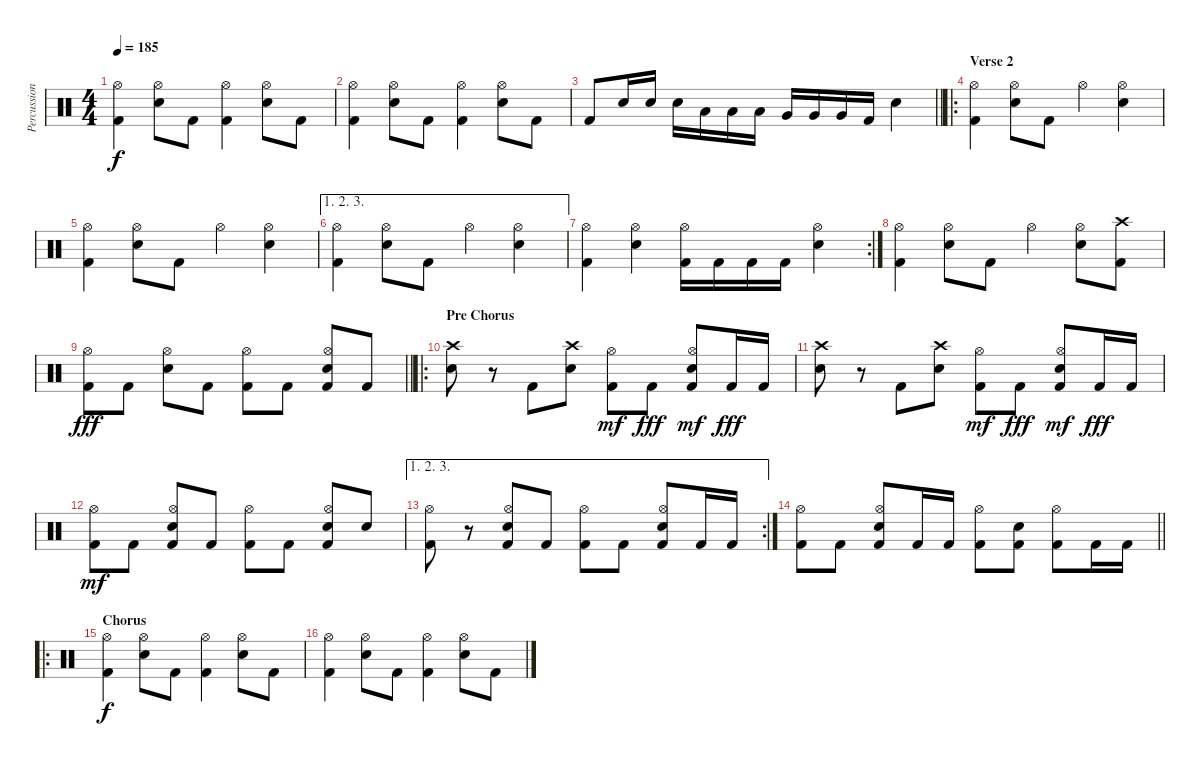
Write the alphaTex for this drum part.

\track ("Percussioni" "Percussion") {instrument percussion}
\staff {score}
\articulation defaults
\ts (4 4)
\tempo 185
\clef neutral
\ks c
("Kick (hit) 2" "Hi-Hat (open)").4{dy f} ("Snare (hit) 2" "Hi-Hat (open)").8 "Kick (hit) 2".8 ("Kick (hit) 2" "Hi-Hat (open)").4 ("Snare (hit) 2" "Hi-Hat (open)").8 "Kick (hit) 2".8 |
("Kick (hit) 2" "Hi-Hat (open)").4 ("Snare (hit) 2" "Hi-Hat (open)").8 "Kick (hit) 2".8 ("Kick (hit) 2" "Hi-Hat (open)").4 ("Snare (hit) 2" "Hi-Hat (open)").8 "Kick (hit) 2".8 |
\barLineRight lightlight "Kick (hit) 2".8 "Snare (hit) 2".16 "Snare (hit) 2".16 "Snare (hit) 2".16 "Low Tom (hit)".16 "Low Tom (hit)".16 "Low Tom (hit)".16 "Very Low Tom (hit)".16 "Very Low Tom (hit)".16 "Very Low Tom (hit)".16 "Kick (hit) 2".16 "Snare (hit) 2".4
|
\ro
\section ("" "Verse 2")
("Kick (hit) 2" "Hi-Hat (open)").4 ("Snare (hit) 2" "Hi-Hat (open)").8 "Kick (hit) 2".8 "Hi-Hat (open)".4 ("Snare (hit) 2" "Hi-Hat (open)").4 |
("Kick (hit) 2" "Hi-Hat (open)").4 ("Snare (hit) 2" "Hi-Hat (open)").8 "Kick (hit) 2".8 "Hi-Hat (open)".4 ("Snare (hit) 2" "Hi-Hat (open)").4 |
\ae (1 2 3)
("Kick (hit) 2" "Hi-Hat (open)").4 ("Snare (hit) 2" "Hi-Hat (open)").8 "Kick (hit) 2".8 "Hi-Hat (open)".4 ("Snare (hit) 2" "Hi-Hat (open)").4 |
\rc 2
("Kick (hit) 2" "Hi-Hat (open)").4 ("Snare (hit) 2" "Hi-Hat (open)").4 ("Kick (hit) 2" "Hi-Hat (open)").16 "Kick (hit) 2".16 "Kick (hit) 2".16 "Kick (hit) 2".16 ("Snare (hit) 2" "Hi-Hat (open)").4 |
("Kick (hit) 2" "Hi-Hat (open)").4 ("Snare (hit) 2" "Hi-Hat (open)").8 "Kick (hit) 2".8 "Hi-Hat (open)".4 ("Snare (hit) 2" "Hi-Hat (open)").8 ("Kick (hit) 2" "Crash high (hit)").8 |
\barLineRight lightlight
("Kick (hit) 2" "Hi-Hat (open)").8{dy fff} "Kick (hit) 2".8 ("Snare (hit) 2" "Hi-Hat (open)").8 "Kick (hit) 2".8 ("Kick (hit) 2" "Hi-Hat (open)").8 "Kick (hit) 2".8 ("Snare (hit) 2" "Hi-Hat (open)" "Kick (hit) 2").8 "Kick (hit) 2".8 |
\ro
\section ("" "Pre Chorus")
("Snare (hit) 2" "Crash high (hit)").8 r.8 "Kick (hit) 2".8 ("Snare (hit) 2" "Crash high (hit)").8 ("Kick (hit) 2" "Hi-Hat (open)").8{dy mf} "Kick (hit) 2".8{dy fff} ("Kick (hit) 2" "Snare (hit) 2" "Hi-Hat (open)").8{dy mf} "Kick (hit) 2".16{dy fff} "Kick (hit) 2".16 |
("Snare (hit) 2" "Crash high (hit)").8 r.8 "Kick (hit) 2".8 ("Snare (hit) 2" "Crash high (hit)").8 ("Kick (hit) 2" "Hi-Hat (open)").8{dy mf} "Kick (hit) 2".8{dy fff} ("Kick (hit) 2" "Snare (hit) 2" "Hi-Hat (open)").8{dy mf} "Kick (hit) 2".16{dy fff} "Kick (hit) 2".16 |
("Kick (hit) 2" "Hi-Hat (open)").8{dy mf} "Kick (hit) 2".8 ("Kick (hit) 2" "Snare (hit) 2" "Hi-Hat (open)").8 "Kick (hit) 2".8 ("Kick (hit) 2" "Hi-Hat (open)").8 "Kick (hit) 2".8 ("Kick (hit) 2" "Snare (hit) 2" "Hi-Hat (open)").8 "Snare (hit) 2".8 |
\ae (1 2 3)
\rc 2
("Kick (hit) 2" "Hi-Hat (open)").8 r.8 ("Kick (hit) 2" "Snare (hit) 2" "Hi-Hat (open)").8 "Kick (hit) 2".8 ("Kick (hit) 2" "Hi-Hat (open)").8 "Kick (hit) 2".8 ("Kick (hit) 2" "Snare (hit) 2" "Hi-Hat (open)").8 "Kick (hit) 2".16 "Kick (hit) 2".16 |
\barLineRight lightlight
("Kick (hit) 2" "Hi-Hat (open)").8 "Kick (hit) 2".8 ("Kick (hit) 2" "Snare (hit) 2" "Hi-Hat (open)").8 "Kick (hit) 2".16 "Kick (hit) 2".16 ("Kick (hit) 2" "Hi-Hat (open)").8 ("Kick (hit) 2" "Snare (hit) 2").8 ("Kick (hit) 2" "Hi-Hat (open)").8 "Kick (hit) 2".16 "Kick (hit) 2".16 |
\ro
\section ("" "Chorus")
("Kick (hit) 2" "Hi-Hat (open)").4{dy f} ("Snare (hit) 2" "Hi-Hat (open)").8 "Kick (hit) 2".8 ("Kick (hit) 2" "Hi-Hat (open)").4 ("Snare (hit) 2" "Hi-Hat (open)").8 "Kick (hit) 2".8 |
("Kick (hit) 2" "Hi-Hat (open)").4 ("Snare (hit) 2" "Hi-Hat (open)").8 "Kick (hit) 2".8 ("Kick (hit) 2" "Hi-Hat (open)").4 ("Snare (hit) 2" "Hi-Hat (open)").8 "Kick (hit) 2".8
